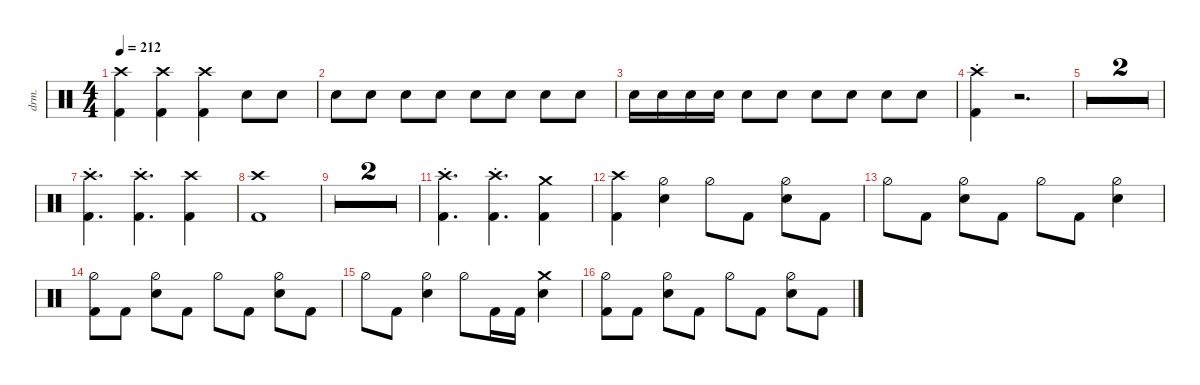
\defaultSystemsLayout 4
\hideDynamics
\bracketExtendMode nobrackets
\track ("Drums" "drm.") {defaultSystemsLayout 4 multiBarRest instrument percussion}
\staff
\articulation defaults
\ts (4 4)
\tempo 212
\clef neutral
\ks c
("Crash high (hit)" "Kick (hit) 2").4{dy f} ("Crash high (hit)" "Kick (hit) 2").4 ("Crash high (hit)" "Kick (hit) 2").4 "Snare (hit) 2".8{dy p} "Snare (hit) 2".8 |
"Snare (hit) 2".8 "Snare (hit) 2".8 "Snare (hit) 2".8{dy mp} "Snare (hit) 2".8 "Snare (hit) 2".8 "Snare (hit) 2".8 "Snare (hit) 2".8 "Snare (hit) 2".8 |
"Snare (hit) 2".16{dy mf} "Snare (hit) 2".16{dy mp} "Snare (hit) 2".16 "Snare (hit) 2".16 "Snare (hit) 2".8{dy mf} "Snare (hit) 2".8 "Snare (hit) 2".8 "Snare (hit) 2".8 "Snare (hit) 2".8{dy f} "Snare (hit) 2".8 |
("Crash high (hit)"{st} "Kick (hit) 2").4 r.2{d} |
r.1 |
r.1 |
("Crash high (hit)"{st} "Kick (hit) 2").4{d} ("Crash high (hit)"{st} "Kick (hit) 2").4{d} ("Crash high (hit)" "Kick (hit) 2").4 |
("Crash high (hit)" "Kick (hit) 2").1 |
r.1 |
r.1 |
("Crash high (hit)"{st} "Kick (hit) 2").4{d} ("Crash high (hit)"{st} "Kick (hit) 2").4{d} ("Crash medium (hit)" "Kick (hit) 2").4 |
("Crash high (hit)" "Kick (hit) 2").4 ("Hi-Hat (half)" "Snare (hit) 2").4 "Hi-Hat (half)".8 "Kick (hit) 2".8 ("Hi-Hat (half)" "Snare (hit) 2").8 "Kick (hit) 2".8 |
"Hi-Hat (half)".8 "Kick (hit) 2".8 ("Hi-Hat (half)" "Snare (hit) 2").8 "Kick (hit) 2".8 "Hi-Hat (half)".8 "Kick (hit) 2".8 ("Hi-Hat (half)" "Snare (hit) 2").4 |
("Hi-Hat (half)" "Kick (hit) 2").8 "Kick (hit) 2".8 ("Hi-Hat (half)" "Snare (hit) 2").8 "Kick (hit) 2".8 "Hi-Hat (half)".8 "Kick (hit) 2".8 ("Hi-Hat (half)" "Snare (hit) 2").8 "Kick (hit) 2".8 |
"Hi-Hat (half)".8 "Kick (hit) 2".8 ("Hi-Hat (half)" "Snare (hit) 2").4 "Hi-Hat (half)".8 "Kick (hit) 2".16 "Kick (hit) 2".16 ("Snare (hit) 2" "Crash medium (hit)").4 |
("Hi-Hat (half)" "Kick (hit) 2").8 "Kick (hit) 2".8 ("Hi-Hat (half)" "Snare (hit) 2").8 "Kick (hit) 2".8 "Hi-Hat (half)".8 "Kick (hit) 2".8 ("Hi-Hat (half)" "Snare (hit) 2").8 "Kick (hit) 2".8
